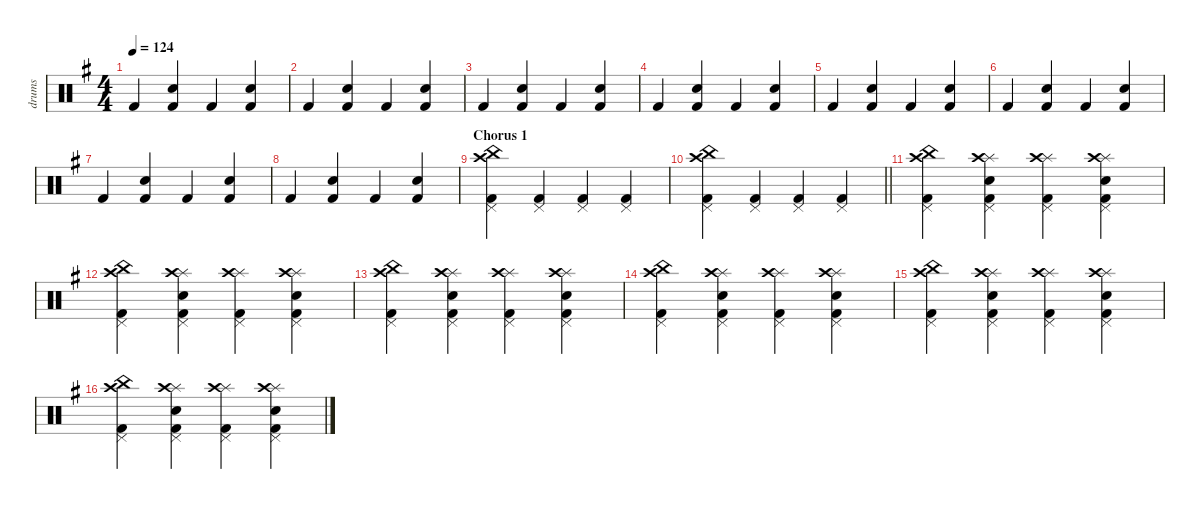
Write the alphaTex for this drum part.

\defaultSystemsLayout 4
\hideDynamics
\bracketExtendMode nobrackets
\otherSystemsTrackNameOrientation horizontal
\track ("drums" "drums") {instrument percussion}
\staff {score}
\articulation defaults
\ts (4 4)
\tempo 124
\clef neutral
\scale
1.07945
\ks eminor "Kick (hit) 2"{acc forcenatural}.4{dy mf beam Up}
("Kick (hit) 2"{acc forcenatural} "Snare (hit) 2"{acc forcenatural}).4{beam Up} "Kick (hit) 2"{acc forcenatural}.4{beam Up} ("Kick (hit) 2"{acc forcenatural} "Snare (hit) 2"{acc forcenatural}).4{beam Up} |
\scale
0.973518 "Kick (hit) 2"{acc forcenatural}.4{beam Up} ("Kick (hit) 2"{acc forcenatural} "Snare (hit) 2"{acc forcenatural}).4{beam Up} "Kick (hit) 2"{acc forcenatural}.4{beam Up} ("Kick (hit) 2"{acc forcenatural} "Snare (hit) 2"{acc forcenatural}).4{beam Up} |
\scale
0.973518 "Kick (hit) 2"{acc forcenatural}.4{beam Up} ("Kick (hit) 2"{acc forcenatural} "Snare (hit) 2"{acc forcenatural}).4{beam Up} "Kick (hit) 2"{acc forcenatural}.4{beam Up} ("Kick (hit) 2"{acc forcenatural} "Snare (hit) 2"{acc forcenatural}).4{beam Up} |
\scale
0.973518 "Kick (hit) 2"{acc forcenatural}.4{beam Up} ("Kick (hit) 2"{acc forcenatural} "Snare (hit) 2"{acc forcenatural}).4{beam Up} "Kick (hit) 2"{acc forcenatural}.4{beam Up} ("Kick (hit) 2"{acc forcenatural} "Snare (hit) 2"{acc forcenatural}).4{beam Up} |
\scale
1.07945 "Kick (hit) 2"{acc forcenatural}.4{beam Up} ("Kick (hit) 2"{acc forcenatural} "Snare (hit) 2"{acc forcenatural}).4{beam Up} "Kick (hit) 2"{acc forcenatural}.4{beam Up} ("Kick (hit) 2"{acc forcenatural} "Snare (hit) 2"{acc forcenatural}).4{beam Up} |
\scale
0.973518 "Kick (hit) 2"{acc forcenatural}.4{beam Up} ("Kick (hit) 2"{acc forcenatural} "Snare (hit) 2"{acc forcenatural}).4{beam Up} "Kick (hit) 2"{acc forcenatural}.4{beam Up} ("Kick (hit) 2"{acc forcenatural} "Snare (hit) 2"{acc forcenatural}).4{beam Up} |
\scale
0.973518 "Kick (hit) 2"{acc forcenatural}.4{beam Up} ("Kick (hit) 2"{acc forcenatural} "Snare (hit) 2"{acc forcenatural}).4{beam Up} "Kick (hit) 2"{acc forcenatural}.4{beam Up} ("Kick (hit) 2"{acc forcenatural} "Snare (hit) 2"{acc forcenatural}).4{beam Up} |
\scale
0.973518 "Kick (hit) 2"{acc forcenatural}.4{beam Up} ("Kick (hit) 2"{acc forcenatural} "Snare (hit) 2"{acc forcenatural}).4{beam Up} "Kick (hit) 2"{acc forcenatural}.4{beam Up} ("Kick (hit) 2"{acc forcenatural} "Snare (hit) 2"{acc forcenatural}).4{beam Up} |
\section ("" "Chorus 1")
\scale
1.07945 ("Kick (hit) 2"{acc forcenatural} "China (hit)"{acc forcenatural} "Crash high (hit)"{acc forcenatural} "Pedal Hi-Hat (hit)"{acc forcenatural}).4{beam Down} ("Kick (hit) 2"{acc forcenatural} "Pedal Hi-Hat (hit)"{acc forcenatural}).4{beam Up} ("Kick (hit) 2"{acc forcenatural} "Pedal Hi-Hat (hit)"{acc forcenatural}).4{beam Up} ("Kick (hit) 2"{acc forcenatural} "Pedal Hi-Hat (hit)"{acc forcenatural}).4{beam Up} |
\scale
0.973518
\barLineRight lightlight
("Kick (hit) 2"{acc forcenatural} "China (hit)"{acc forcenatural} "Crash high (hit)"{acc forcenatural} "Pedal Hi-Hat (hit)"{acc forcenatural}).4{beam Down} ("Kick (hit) 2"{acc forcenatural} "Pedal Hi-Hat (hit)"{acc forcenatural}).4{beam Up} ("Kick (hit) 2"{acc forcenatural} "Pedal Hi-Hat (hit)"{acc forcenatural}).4{beam Up} ("Kick (hit) 2"{acc forcenatural} "Pedal Hi-Hat (hit)"{acc forcenatural}).4{beam Up} |
\scale
0.973518 ("Kick (hit) 2"{acc forcenatural} "China (hit)"{acc forcenatural} "Crash high (hit)"{acc forcenatural} "Pedal Hi-Hat (hit)"{acc forcenatural}).4{beam Down} ("Kick (hit) 2"{acc forcenatural} "Pedal Hi-Hat (hit)"{acc forcenatural} "Snare (hit) 2"{acc forcenatural} "Splash (hit)"{acc forcenatural} "Crash high (hit)"{acc forcenatural}).4{beam Down} ("Kick (hit) 2"{acc forcenatural} "Pedal Hi-Hat (hit)"{acc forcenatural} "Splash (hit)"{acc forcenatural} "Crash high (hit)"{acc forcenatural}).4{beam Down} ("Kick (hit) 2"{acc forcenatural} "Pedal Hi-Hat (hit)"{acc forcenatural} "Snare (hit) 2"{acc forcenatural} "Splash (hit)"{acc forcenatural} "Crash high (hit)"{acc forcenatural}).4{beam Down} |
\scale
0.973518 ("Kick (hit) 2"{acc forcenatural} "China (hit)"{acc forcenatural} "Crash high (hit)"{acc forcenatural} "Pedal Hi-Hat (hit)"{acc forcenatural}).4{beam Down} ("Kick (hit) 2"{acc forcenatural} "Pedal Hi-Hat (hit)"{acc forcenatural} "Snare (hit) 2"{acc forcenatural} "Splash (hit)"{acc forcenatural} "Crash high (hit)"{acc forcenatural}).4{beam Down} ("Kick (hit) 2"{acc forcenatural} "Pedal Hi-Hat (hit)"{acc forcenatural} "Splash (hit)"{acc forcenatural} "Crash high (hit)"{acc forcenatural}).4{beam Down} ("Kick (hit) 2"{acc forcenatural} "Pedal Hi-Hat (hit)"{acc forcenatural} "Snare (hit) 2"{acc forcenatural} "Splash (hit)"{acc forcenatural} "Crash high (hit)"{acc forcenatural}).4{beam Down} |
\scale
1.07945 ("Kick (hit) 2"{acc forcenatural} "China (hit)"{acc forcenatural} "Crash high (hit)"{acc forcenatural} "Pedal Hi-Hat (hit)"{acc forcenatural}).4{beam Down} ("Kick (hit) 2"{acc forcenatural} "Pedal Hi-Hat (hit)"{acc forcenatural} "Snare (hit) 2"{acc forcenatural} "Splash (hit)"{acc forcenatural} "Crash high (hit)"{acc forcenatural}).4{beam Down} ("Kick (hit) 2"{acc forcenatural} "Pedal Hi-Hat (hit)"{acc forcenatural} "Splash (hit)"{acc forcenatural} "Crash high (hit)"{acc forcenatural}).4{beam Down} ("Kick (hit) 2"{acc forcenatural} "Pedal Hi-Hat (hit)"{acc forcenatural} "Snare (hit) 2"{acc forcenatural} "Splash (hit)"{acc forcenatural} "Crash high (hit)"{acc forcenatural}).4{beam Down} |
\scale
0.973518 ("Kick (hit) 2"{acc forcenatural} "China (hit)"{acc forcenatural} "Crash high (hit)"{acc forcenatural} "Pedal Hi-Hat (hit)"{acc forcenatural}).4{beam Down} ("Kick (hit) 2"{acc forcenatural} "Pedal Hi-Hat (hit)"{acc forcenatural} "Snare (hit) 2"{acc forcenatural} "Splash (hit)"{acc forcenatural} "Crash high (hit)"{acc forcenatural}).4{beam Down} ("Kick (hit) 2"{acc forcenatural} "Pedal Hi-Hat (hit)"{acc forcenatural} "Splash (hit)"{acc forcenatural} "Crash high (hit)"{acc forcenatural}).4{beam Down} ("Kick (hit) 2"{acc forcenatural} "Pedal Hi-Hat (hit)"{acc forcenatural} "Snare (hit) 2"{acc forcenatural} "Splash (hit)"{acc forcenatural} "Crash high (hit)"{acc forcenatural}).4{beam Down} |
\scale
0.973518 ("Kick (hit) 2"{acc forcenatural} "China (hit)"{acc forcenatural} "Crash high (hit)"{acc forcenatural} "Pedal Hi-Hat (hit)"{acc forcenatural}).4{beam Down} ("Kick (hit) 2"{acc forcenatural} "Pedal Hi-Hat (hit)"{acc forcenatural} "Snare (hit) 2"{acc forcenatural} "Splash (hit)"{acc forcenatural} "Crash high (hit)"{acc forcenatural}).4{beam Down} ("Kick (hit) 2"{acc forcenatural} "Pedal Hi-Hat (hit)"{acc forcenatural} "Splash (hit)"{acc forcenatural} "Crash high (hit)"{acc forcenatural}).4{beam Down} ("Kick (hit) 2"{acc forcenatural} "Pedal Hi-Hat (hit)"{acc forcenatural} "Snare (hit) 2"{acc forcenatural} "Splash (hit)"{acc forcenatural} "Crash high (hit)"{acc forcenatural}).4{beam Down} |
\scale
0.973518 ("Kick (hit) 2"{acc forcenatural} "China (hit)"{acc forcenatural} "Crash high (hit)"{acc forcenatural} "Pedal Hi-Hat (hit)"{acc forcenatural}).4{beam Down} ("Kick (hit) 2"{acc forcenatural} "Pedal Hi-Hat (hit)"{acc forcenatural} "Snare (hit) 2"{acc forcenatural} "Splash (hit)"{acc forcenatural} "Crash high (hit)"{acc forcenatural}).4{beam Down} ("Kick (hit) 2"{acc forcenatural} "Pedal Hi-Hat (hit)"{acc forcenatural} "Splash (hit)"{acc forcenatural} "Crash high (hit)"{acc forcenatural}).4{beam Down} ("Kick (hit) 2"{acc forcenatural} "Pedal Hi-Hat (hit)"{acc forcenatural} "Snare (hit) 2"{acc forcenatural} "Splash (hit)"{acc forcenatural} "Crash high (hit)"{acc forcenatural}).4{beam Down}
